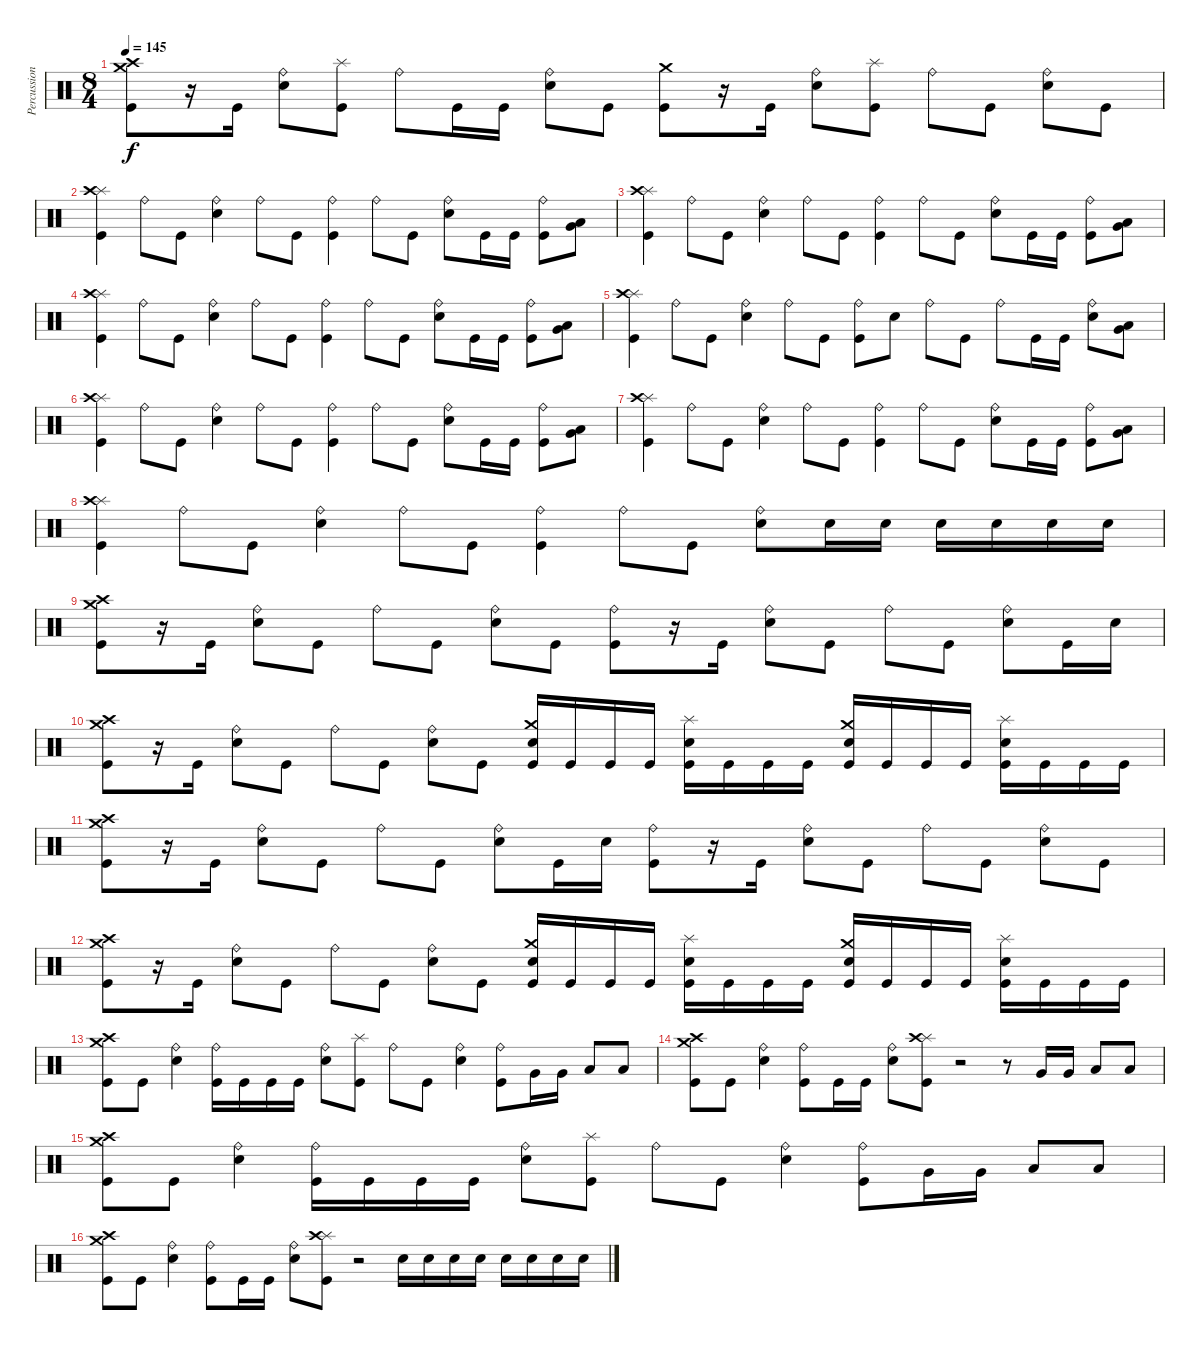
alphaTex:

\track ("Percussion" "Percussion") {instrument percussion}
\staff {score}
\articulation defaults
\ts (8 4)
\tempo 145
\clef neutral
\ks c
("Kick (hit)" "Crash high (hit)" "Crash medium (hit)").8{dy f} r.16 "Kick (hit)".16 ("Electric Snare (hit)" "Ride (bell)").8 ("Kick (hit)" "Splash (hit)").8 "Ride (bell)".8 "Kick (hit)".16 "Kick (hit)".16 ("Electric Snare (hit)" "Ride (bell)").8 "Kick (hit)".8 ("Kick (hit)" "Crash medium (hit)").8 r.16 "Kick (hit)".16 ("Electric Snare (hit)" "Ride (bell)").8 ("Kick (hit)" "Splash (hit)").8 "Ride (bell)".8 "Kick (hit)".8 ("Electric Snare (hit)" "Ride (bell)").8 "Kick (hit)".8 |
("Kick (hit)" "Splash (hit)" "Crash high (hit)").4 "Ride (bell)".8 "Kick (hit)".8 ("Electric Snare (hit)" "Ride (bell)").4 "Ride (bell)".8 "Kick (hit)".8 ("Kick (hit)" "Ride (bell)").4 "Ride (bell)".8 "Kick (hit)".8 ("Electric Snare (hit)" "Ride (bell)").8 "Kick (hit)".16 "Kick (hit)".16 ("Kick (hit)" "Ride (bell)").8 ("Very Low Tom (hit)" "Low Tom (hit)").8 |
("Kick (hit)" "Splash (hit)" "Crash high (hit)").4 "Ride (bell)".8 "Kick (hit)".8 ("Electric Snare (hit)" "Ride (bell)").4 "Ride (bell)".8 "Kick (hit)".8 ("Kick (hit)" "Ride (bell)").4 "Ride (bell)".8 "Kick (hit)".8 ("Electric Snare (hit)" "Ride (bell)").8 "Kick (hit)".16 "Kick (hit)".16 ("Kick (hit)" "Ride (bell)").8 ("Very Low Tom (hit)" "Low Tom (hit)").8 |
("Kick (hit)" "Splash (hit)" "Crash high (hit)").4 "Ride (bell)".8 "Kick (hit)".8 ("Electric Snare (hit)" "Ride (bell)").4 "Ride (bell)".8 "Kick (hit)".8 ("Kick (hit)" "Ride (bell)").4 "Ride (bell)".8 "Kick (hit)".8 ("Electric Snare (hit)" "Ride (bell)").8 "Kick (hit)".16 "Kick (hit)".16 ("Kick (hit)" "Ride (bell)").8 ("Very Low Tom (hit)" "Low Tom (hit)").8 |
("Kick (hit)" "Splash (hit)" "Crash high (hit)").4 "Ride (bell)".8 "Kick (hit)".8 ("Electric Snare (hit)" "Ride (bell)").4 "Ride (bell)".8 "Kick (hit)".8 ("Kick (hit)" "Ride (bell)").8 "Electric Snare (hit)".8 "Ride (bell)".8 "Kick (hit)".8 "Ride (bell)".8 "Kick (hit)".16 "Kick (hit)".16 ("Electric Snare (hit)" "Ride (bell)").8 ("Very Low Tom (hit)" "Low Tom (hit)").8 |
("Kick (hit)" "Splash (hit)" "Crash high (hit)").4 "Ride (bell)".8 "Kick (hit)".8 ("Electric Snare (hit)" "Ride (bell)").4 "Ride (bell)".8 "Kick (hit)".8 ("Kick (hit)" "Ride (bell)").4 "Ride (bell)".8 "Kick (hit)".8 ("Electric Snare (hit)" "Ride (bell)").8 "Kick (hit)".16 "Kick (hit)".16 ("Kick (hit)" "Ride (bell)").8 ("Very Low Tom (hit)" "Low Tom (hit)").8 |
("Kick (hit)" "Splash (hit)" "Crash high (hit)").4 "Ride (bell)".8 "Kick (hit)".8 ("Electric Snare (hit)" "Ride (bell)").4 "Ride (bell)".8 "Kick (hit)".8 ("Kick (hit)" "Ride (bell)").4 "Ride (bell)".8 "Kick (hit)".8 ("Electric Snare (hit)" "Ride (bell)").8 "Kick (hit)".16 "Kick (hit)".16 ("Kick (hit)" "Ride (bell)").8 ("Very Low Tom (hit)" "Low Tom (hit)").8 |
("Kick (hit)" "Splash (hit)" "Crash high (hit)").4 "Ride (bell)".8 "Kick (hit)".8 ("Electric Snare (hit)" "Ride (bell)").4 "Ride (bell)".8 "Kick (hit)".8 ("Kick (hit)" "Ride (bell)").4 "Ride (bell)".8 "Kick (hit)".8 ("Electric Snare (hit)" "Ride (bell)").8 "Electric Snare (hit)".16 "Electric Snare (hit)".16 "Electric Snare (hit)".16 "Electric Snare (hit)".16 "Electric Snare (hit)".16 "Electric Snare (hit)".16 |
("Kick (hit)" "Crash high (hit)" "Crash medium (hit)").8 r.16 "Kick (hit)".16 ("Electric Snare (hit)" "Ride (bell)").8 "Kick (hit)".8 "Ride (bell)".8 "Kick (hit)".8 ("Electric Snare (hit)" "Ride (bell)").8 "Kick (hit)".8 ("Kick (hit)" "Ride (bell)").8 r.16 "Kick (hit)".16 ("Electric Snare (hit)" "Ride (bell)").8 "Kick (hit)".8 "Ride (bell)".8 "Kick (hit)".8 ("Electric Snare (hit)" "Ride (bell)").8 "Kick (hit)".16 "Electric Snare (hit)".16 |
("Kick (hit)" "Crash high (hit)" "Crash medium (hit)").8 r.16 "Kick (hit)".16 ("Electric Snare (hit)" "Ride (bell)").8 "Kick (hit)".8 "Ride (bell)".8 "Kick (hit)".8 ("Electric Snare (hit)" "Ride (bell)").8 "Kick (hit)".8 ("Kick (hit)" "Crash medium (hit)" "Electric Snare (hit)").16 "Kick (hit)".16 "Kick (hit)".16 "Kick (hit)".16 ("Kick (hit)" "Splash (hit)" "Electric Snare (hit)").16 "Kick (hit)".16 "Kick (hit)".16 "Kick (hit)".16 ("Kick (hit)" "Crash medium (hit)" "Electric Snare (hit)").16 "Kick (hit)".16 "Kick (hit)".16 "Kick (hit)".16 ("Kick (hit)" "Splash (hit)" "Electric Snare (hit)").16 "Kick (hit)".16 "Kick (hit)".16 "Kick (hit)".16 |
("Kick (hit)" "Crash high (hit)" "Crash medium (hit)").8 r.16 "Kick (hit)".16 ("Electric Snare (hit)" "Ride (bell)").8 "Kick (hit)".8 "Ride (bell)".8 "Kick (hit)".8 ("Electric Snare (hit)" "Ride (bell)").8 "Kick (hit)".16 "Electric Snare (hit)".16 ("Kick (hit)" "Ride (bell)").8 r.16 "Kick (hit)".16 ("Electric Snare (hit)" "Ride (bell)").8 "Kick (hit)".8 "Ride (bell)".8 "Kick (hit)".8 ("Electric Snare (hit)" "Ride (bell)").8 "Kick (hit)".8 |
("Kick (hit)" "Crash high (hit)" "Crash medium (hit)").8 r.16 "Kick (hit)".16 ("Electric Snare (hit)" "Ride (bell)").8 "Kick (hit)".8 "Ride (bell)".8 "Kick (hit)".8 ("Electric Snare (hit)" "Ride (bell)").8 "Kick (hit)".8 ("Kick (hit)" "Crash medium (hit)" "Electric Snare (hit)").16 "Kick (hit)".16 "Kick (hit)".16 "Kick (hit)".16 ("Kick (hit)" "Splash (hit)" "Electric Snare (hit)").16 "Kick (hit)".16 "Kick (hit)".16 "Kick (hit)".16 ("Kick (hit)" "Crash medium (hit)" "Electric Snare (hit)").16 "Kick (hit)".16 "Kick (hit)".16 "Kick (hit)".16 ("Kick (hit)" "Splash (hit)" "Electric Snare (hit)").16 "Kick (hit)".16 "Kick (hit)".16 "Kick (hit)".16 |
("Kick (hit)" "Crash high (hit)" "Crash medium (hit)").8 "Kick (hit)".8 ("Electric Snare (hit)" "Ride (bell)").4 ("Kick (hit)" "Ride (bell)").16 "Kick (hit)".16 "Kick (hit)".16 "Kick (hit)".16 ("Electric Snare (hit)" "Ride (bell)").8 ("Kick (hit)" "Splash (hit)").8 "Ride (bell)".8 "Kick (hit)".8 ("Electric Snare (hit)" "Ride (bell)").4 ("Kick (hit)" "Ride (bell)").8 "Very Low Tom (hit)".16 "Very Low Tom (hit)".16 "Low Floor Tom (hit)".8 "Low Floor Tom (hit)".8 |
("Kick (hit)" "Crash medium (hit)" "Crash high (hit)").8 "Kick (hit)".8 ("Electric Snare (hit)" "Ride (bell)").4 ("Kick (hit)" "Ride (bell)").8 "Kick (hit)".16 "Kick (hit)".16 ("Electric Snare (hit)" "Ride (bell)").8 ("Kick (hit)" "Splash (hit)" "Crash high (hit)").8 r.2 r.8 "Very Low Tom (hit)".16 "Very Low Tom (hit)".16 "Low Floor Tom (hit)".8 "Low Floor Tom (hit)".8 |
("Kick (hit)" "Crash high (hit)" "Crash medium (hit)").8 "Kick (hit)".8 ("Electric Snare (hit)" "Ride (bell)").4 ("Kick (hit)" "Ride (bell)").16 "Kick (hit)".16 "Kick (hit)".16 "Kick (hit)".16 ("Electric Snare (hit)" "Ride (bell)").8 ("Kick (hit)" "Splash (hit)").8 "Ride (bell)".8 "Kick (hit)".8 ("Electric Snare (hit)" "Ride (bell)").4 ("Kick (hit)" "Ride (bell)").8 "Very Low Tom (hit)".16 "Very Low Tom (hit)".16 "Low Floor Tom (hit)".8 "Low Floor Tom (hit)".8 |
("Kick (hit)" "Crash medium (hit)" "Crash high (hit)").8 "Kick (hit)".8 ("Electric Snare (hit)" "Ride (bell)").4 ("Kick (hit)" "Ride (bell)").8 "Kick (hit)".16 "Kick (hit)".16 ("Electric Snare (hit)" "Ride (bell)").8 ("Kick (hit)" "Splash (hit)" "Crash high (hit)").8 r.2 "Electric Snare (hit)".16 "Electric Snare (hit)".16 "Electric Snare (hit)".16 "Electric Snare (hit)".16 "Electric Snare (hit)".16 "Electric Snare (hit)".16 "Electric Snare (hit)".16 "Electric Snare (hit)".16
